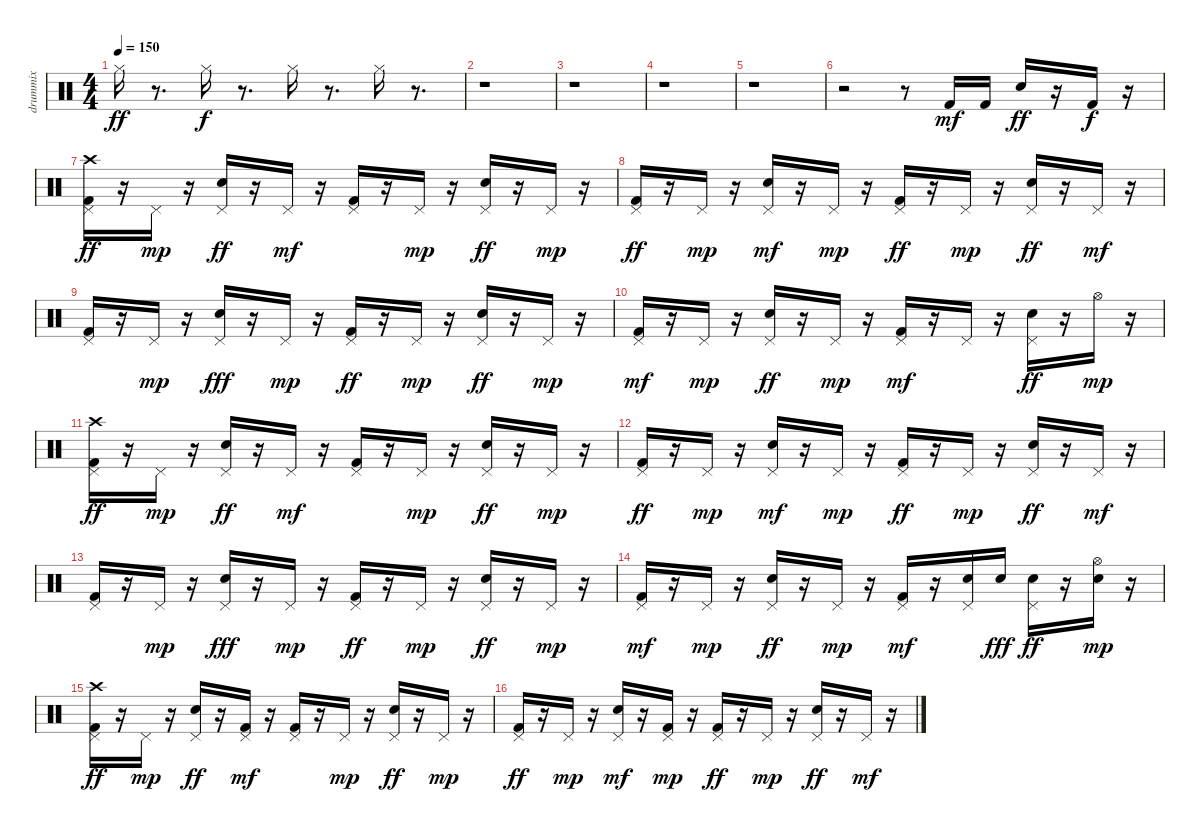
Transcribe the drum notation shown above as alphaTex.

\track ("drummix" "drummix") {instrument percussion}
\staff {score}
\articulation defaults
\ts (4 4)
\tempo 150
\clef neutral
\ks c "Hi-Hat (closed)".16{dy ff}
r.8{d} "Hi-Hat (closed)".16{dy f} r.8{d} "Hi-Hat (closed)".16{volume 14} r.8{d} "Hi-Hat (closed)".16 r.8{d} |
r.1 |
r.1 |
r.1 |
r.1 |
r.2 r.8 "Kick (hit) 2".16{dy mf} "Kick (hit) 2".16 "Snare (hit) 2".16{dy ff} r.16 "Kick (hit) 2".16{dy f} r.16 |
("Kick (hit) 2" "Pedal Hi-Hat (hit)" "Crash high (hit)").16{dy ff} r.16 "Pedal Hi-Hat (hit)".16{dy mp} r.16 ("Snare (hit) 2" "Pedal Hi-Hat (hit)").16{dy ff} r.16 "Pedal Hi-Hat (hit)".16{dy mf} r.16 ("Kick (hit) 2" "Pedal Hi-Hat (hit)").16 r.16 "Pedal Hi-Hat (hit)".16{dy mp} r.16 ("Snare (hit) 2" "Pedal Hi-Hat (hit)").16{dy ff} r.16 "Pedal Hi-Hat (hit)".16{dy mp} r.16 |
("Kick (hit) 2" "Pedal Hi-Hat (hit)").16{dy ff} r.16 "Pedal Hi-Hat (hit)".16{dy mp} r.16 ("Snare (hit) 2" "Pedal Hi-Hat (hit)").16{dy mf} r.16 "Pedal Hi-Hat (hit)".16{dy mp} r.16 ("Kick (hit) 2" "Pedal Hi-Hat (hit)").16{dy ff} r.16 "Pedal Hi-Hat (hit)".16{dy mp} r.16 ("Snare (hit) 2" "Pedal Hi-Hat (hit)").16{dy ff} r.16 "Pedal Hi-Hat (hit)".16{dy mf} r.16 |
("Kick (hit) 2" "Pedal Hi-Hat (hit)").16 r.16 "Pedal Hi-Hat (hit)".16{dy mp} r.16 ("Snare (hit) 2" "Pedal Hi-Hat (hit)").16{dy fff} r.16 "Pedal Hi-Hat (hit)".16{dy mp} r.16 ("Kick (hit) 2" "Pedal Hi-Hat (hit)").16{dy ff} r.16 "Pedal Hi-Hat (hit)".16{dy mp} r.16 ("Snare (hit) 2" "Pedal Hi-Hat (hit)").16{dy ff} r.16 "Pedal Hi-Hat (hit)".16{dy mp} r.16 |
("Kick (hit) 2" "Pedal Hi-Hat (hit)").16{dy mf} r.16 "Pedal Hi-Hat (hit)".16{dy mp} r.16 ("Snare (hit) 2" "Pedal Hi-Hat (hit)").16{dy ff} r.16 "Pedal Hi-Hat (hit)".16{dy mp} r.16 ("Kick (hit) 2" "Pedal Hi-Hat (hit)").16{dy mf} r.16 "Pedal Hi-Hat (hit)".16 r.16 ("Snare (hit) 2" "Pedal Hi-Hat (hit)").16{dy ff} r.16 "Hi-Hat (open)".16{dy mp} r.16 |
("Kick (hit) 2" "Pedal Hi-Hat (hit)" "Crash high (hit)").16{dy ff} r.16 "Pedal Hi-Hat (hit)".16{dy mp} r.16 ("Snare (hit) 2" "Pedal Hi-Hat (hit)").16{dy ff} r.16 "Pedal Hi-Hat (hit)".16{dy mf} r.16 ("Kick (hit) 2" "Pedal Hi-Hat (hit)").16 r.16 "Pedal Hi-Hat (hit)".16{dy mp} r.16 ("Snare (hit) 2" "Pedal Hi-Hat (hit)").16{dy ff} r.16 "Pedal Hi-Hat (hit)".16{dy mp} r.16 |
("Kick (hit) 2" "Pedal Hi-Hat (hit)").16{dy ff} r.16 "Pedal Hi-Hat (hit)".16{dy mp} r.16 ("Snare (hit) 2" "Pedal Hi-Hat (hit)").16{dy mf} r.16 "Pedal Hi-Hat (hit)".16{dy mp} r.16 ("Kick (hit) 2" "Pedal Hi-Hat (hit)").16{dy ff} r.16 "Pedal Hi-Hat (hit)".16{dy mp} r.16 ("Snare (hit) 2" "Pedal Hi-Hat (hit)").16{dy ff} r.16 "Pedal Hi-Hat (hit)".16{dy mf} r.16 |
("Kick (hit) 2" "Pedal Hi-Hat (hit)").16 r.16 "Pedal Hi-Hat (hit)".16{dy mp} r.16 ("Snare (hit) 2" "Pedal Hi-Hat (hit)").16{dy fff} r.16 "Pedal Hi-Hat (hit)".16{dy mp} r.16 ("Kick (hit) 2" "Pedal Hi-Hat (hit)").16{dy ff} r.16 "Pedal Hi-Hat (hit)".16{dy mp} r.16 ("Snare (hit) 2" "Pedal Hi-Hat (hit)").16{dy ff} r.16 "Pedal Hi-Hat (hit)".16{dy mp} r.16 |
("Kick (hit) 2" "Pedal Hi-Hat (hit)").16{dy mf} r.16 "Pedal Hi-Hat (hit)".16{dy mp} r.16 ("Snare (hit) 2" "Pedal Hi-Hat (hit)").16{dy ff} r.16 "Pedal Hi-Hat (hit)".16{dy mp} r.16 ("Kick (hit) 2" "Pedal Hi-Hat (hit)").16{dy mf} r.16 ("Snare (hit) 2" "Pedal Hi-Hat (hit)").16 "Snare (hit) 2".16{dy fff} ("Snare (hit) 2" "Pedal Hi-Hat (hit)").16{dy ff} r.16 ("Snare (hit) 2" "Hi-Hat (open)").16{dy mp} r.16 |
("Kick (hit) 2" "Pedal Hi-Hat (hit)" "Crash high (hit)").16{dy ff} r.16 "Pedal Hi-Hat (hit)".16{dy mp} r.16 ("Snare (hit) 2" "Pedal Hi-Hat (hit)").16{dy ff} r.16 ("Kick (hit) 2" "Pedal Hi-Hat (hit)").16{dy mf} r.16 ("Kick (hit) 2" "Pedal Hi-Hat (hit)").16 r.16 "Pedal Hi-Hat (hit)".16{dy mp} r.16 ("Snare (hit) 2" "Pedal Hi-Hat (hit)").16{dy ff} r.16 "Pedal Hi-Hat (hit)".16{dy mp} r.16 |
("Kick (hit) 2" "Pedal Hi-Hat (hit)").16{dy ff} r.16 "Pedal Hi-Hat (hit)".16{dy mp} r.16 ("Snare (hit) 2" "Pedal Hi-Hat (hit)").16{dy mf} r.16 ("Kick (hit) 2" "Pedal Hi-Hat (hit)").16{dy mp} r.16 ("Kick (hit) 2" "Pedal Hi-Hat (hit)").16{dy ff} r.16 "Pedal Hi-Hat (hit)".16{dy mp} r.16 ("Snare (hit) 2" "Pedal Hi-Hat (hit)").16{dy ff} r.16 "Pedal Hi-Hat (hit)".16{dy mf} r.16
